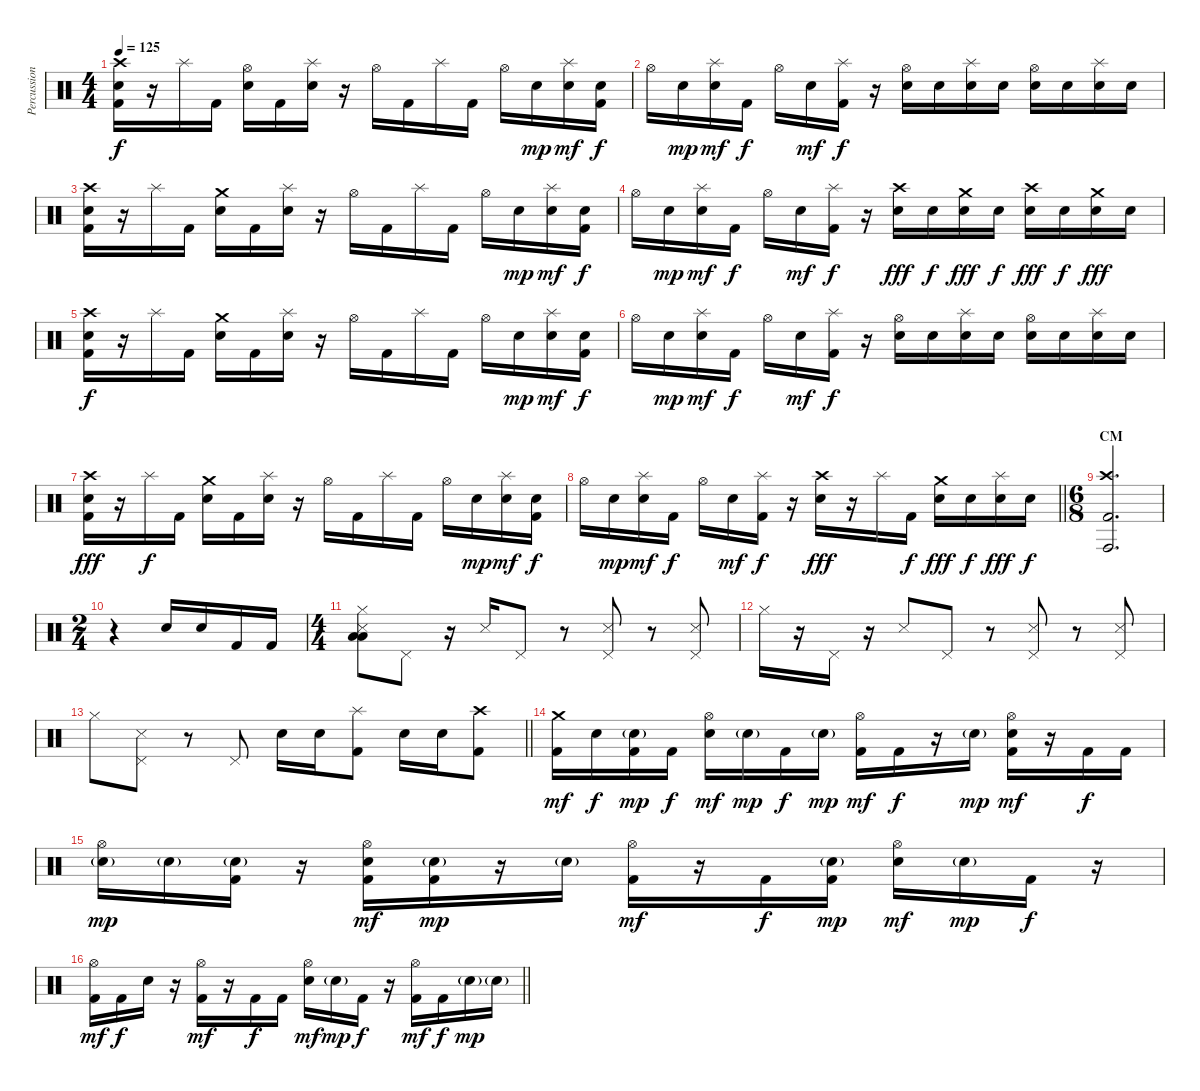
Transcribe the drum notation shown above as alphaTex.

\track ("Percussion" "Percussion") {instrument percussion}
\staff {score}
\articulation defaults
\ts (4 4)
\tempo 125
\clef neutral
\ks c
("Crash high (hit)" "Electric Snare (hit)" "Kick (hit) 2").16{dy f} r.16 "Splash (hit)".16 "Kick (hit) 2".16 ("Hi-Hat (open)" "Electric Snare (hit)").16 "Kick (hit) 2".16 ("Splash (hit)" "Electric Snare (hit)").16 r.16 "Hi-Hat (open)".16 "Kick (hit) 2".16 "Splash (hit)".16 "Kick (hit) 2".16 "Hi-Hat (open)".16 "Electric Snare (hit)".16{dy mp} ("Splash (hit)" "Electric Snare (hit)").16{dy mf} ("Electric Snare (hit)" "Kick (hit) 2").16{dy f} |
"Hi-Hat (open)".16 "Electric Snare (hit)".16{dy mp} ("Splash (hit)" "Electric Snare (hit)").16{dy mf} "Kick (hit) 2".16{dy f} "Hi-Hat (open)".16 "Electric Snare (hit)".16{dy mf} ("Splash (hit)" "Kick (hit) 2").16{dy f} r.16 ("Hi-Hat (open)" "Electric Snare (hit)").16 "Electric Snare (hit)".16 ("Splash (hit)" "Electric Snare (hit)").16 "Electric Snare (hit)".16 ("Hi-Hat (open)" "Electric Snare (hit)").16 "Electric Snare (hit)".16 ("Splash (hit)" "Electric Snare (hit)").16 "Electric Snare (hit)".16 |
("Crash high (hit)" "Electric Snare (hit)" "Kick (hit) 2").16 r.16 "Splash (hit)".16 "Kick (hit) 2".16 ("Crash medium (hit)" "Electric Snare (hit)").16 "Kick (hit) 2".16 ("Splash (hit)" "Electric Snare (hit)").16 r.16 "Hi-Hat (open)".16 "Kick (hit) 2".16 "Splash (hit)".16 "Kick (hit) 2".16 "Hi-Hat (open)".16 "Electric Snare (hit)".16{dy mp} ("Splash (hit)" "Electric Snare (hit)").16{dy mf} ("Electric Snare (hit)" "Kick (hit) 2").16{dy f} |
"Hi-Hat (open)".16 "Electric Snare (hit)".16{dy mp} ("Splash (hit)" "Electric Snare (hit)").16{dy mf} "Kick (hit) 2".16{dy f} "Hi-Hat (open)".16 "Electric Snare (hit)".16{dy mf} ("Splash (hit)" "Kick (hit) 2").16{dy f} r.16 ("Crash high (hit)" "Electric Snare (hit)").16{dy fff} "Electric Snare (hit)".16{dy f} ("Crash medium (hit)" "Electric Snare (hit)").16{dy fff} "Electric Snare (hit)".16{dy f} ("Crash high (hit)" "Electric Snare (hit)").16{dy fff} "Electric Snare (hit)".16{dy f} ("Crash medium (hit)" "Electric Snare (hit)").16{dy fff} "Electric Snare (hit)".16 |
("Crash high (hit)" "Electric Snare (hit)" "Kick (hit) 2").16{dy f} r.16 "Splash (hit)".16 "Kick (hit) 2".16 ("Crash medium (hit)" "Electric Snare (hit)").16 "Kick (hit) 2".16 ("Splash (hit)" "Electric Snare (hit)").16 r.16 "Hi-Hat (open)".16 "Kick (hit) 2".16 "Splash (hit)".16 "Kick (hit) 2".16 "Hi-Hat (open)".16 "Electric Snare (hit)".16{dy mp} ("Splash (hit)" "Electric Snare (hit)").16{dy mf} ("Electric Snare (hit)" "Kick (hit) 2").16{dy f} |
"Hi-Hat (open)".16 "Electric Snare (hit)".16{dy mp} ("Splash (hit)" "Electric Snare (hit)").16{dy mf} "Kick (hit) 2".16{dy f} "Hi-Hat (open)".16 "Electric Snare (hit)".16{dy mf} ("Splash (hit)" "Kick (hit) 2").16{dy f} r.16 ("Hi-Hat (open)" "Electric Snare (hit)").16 "Electric Snare (hit)".16 ("Splash (hit)" "Electric Snare (hit)").16 "Electric Snare (hit)".16 ("Hi-Hat (open)" "Electric Snare (hit)").16 "Electric Snare (hit)".16 ("Splash (hit)" "Electric Snare (hit)").16 "Electric Snare (hit)".16 |
("Crash high (hit)" "Electric Snare (hit)" "Kick (hit) 2").16{dy fff} r.16 "Splash (hit)".16{dy f} "Kick (hit) 2".16 ("Crash medium (hit)" "Electric Snare (hit)").16 "Kick (hit) 2".16 ("Splash (hit)" "Electric Snare (hit)").16 r.16 "Hi-Hat (open)".16 "Kick (hit) 2".16 "Splash (hit)".16 "Kick (hit) 2".16 "Hi-Hat (open)".16 "Electric Snare (hit)".16{dy mp} ("Splash (hit)" "Electric Snare (hit)").16{dy mf} ("Electric Snare (hit)" "Kick (hit) 2").16{dy f} |
\barLineRight lightlight "Hi-Hat (open)".16 "Electric Snare (hit)".16{dy mp}
("Splash (hit)" "Electric Snare (hit)").16{dy mf} "Kick (hit) 2".16{dy f} "Hi-Hat (open)".16 "Electric Snare (hit)".16{dy mf} ("Splash (hit)" "Kick (hit) 2").16{dy f} r.16 ("Crash high (hit)" "Electric Snare (hit)").16{dy fff} r.16 "Splash (hit)".16 "Kick (hit) 2".16{dy f} ("Crash medium (hit)" "Electric Snare (hit)").16{dy fff} "Electric Snare (hit)".16{dy f} ("Splash (hit)" "Electric Snare (hit)").16{dy fff} "Electric Snare (hit)".16{dy f} |
\ts (6 8)
\section ("" "CM")
("Crash high (hit)" "Conga high (hit)" "Kick (hit) 2").2{d} |
\ts (2 4)
r.4 "Electric Snare (hit)".16 "Electric Snare (hit)".16 "Kick (hit) 2".16 "Kick (hit) 2".16 |
\ts (4 4)
("Hi-Hat (closed)" "Low Tom (hit)" "Low Floor Tom (hit)" "Snare (side stick) 3").8 "Pedal Hi-Hat (hit)".8 r.16 "Snare (side stick) 3".16 "Pedal Hi-Hat (hit)".8 r.8 ("Pedal Hi-Hat (hit)" "Snare (side stick) 3").8 r.8 ("Pedal Hi-Hat (hit)" "Snare (side stick) 3").8 |
"Hi-Hat (closed)".16 r.16 "Pedal Hi-Hat (hit)".16 r.16 "Snare (side stick) 3".8 "Pedal Hi-Hat (hit)".8 r.8 ("Pedal Hi-Hat (hit)" "Snare (side stick) 3").8 r.8 ("Pedal Hi-Hat (hit)" "Snare (side stick) 3").8 |
\barLineRight lightlight "Hi-Hat (closed)".8
("Pedal Hi-Hat (hit)" "Snare (side stick) 3").8 r.8 "Pedal Hi-Hat (hit)".8 "Electric Snare (hit)".16 "Electric Snare (hit)".16 ("Splash (hit)" "Kick (hit) 2").8 "Electric Snare (hit)".16 "Electric Snare (hit)".16 ("Crash high (hit)" "Kick (hit) 2").8 |
("Crash medium (hit)" "Kick (hit) 2").16{dy mf} "Electric Snare (hit)".16{dy f} ("Electric Snare (hit)"{g} "Kick (hit) 2").16{dy mp} "Kick (hit) 2".16{dy f} ("Hi-Hat (open)" "Electric Snare (hit)").16{dy mf} "Electric Snare (hit)"{g}.16{dy mp} "Kick (hit) 2".16{dy f} "Electric Snare (hit)"{g}.16{dy mp} ("Hi-Hat (open)" "Kick (hit) 2").16{dy mf} "Kick (hit) 2".16{dy f} r.16 "Electric Snare (hit)"{g}.16{dy mp} ("Hi-Hat (open)" "Electric Snare (hit)" "Kick (hit) 2").16{dy mf} r.16 "Kick (hit) 2".16{dy f} "Kick (hit) 2".16 |
("Hi-Hat (open)" "Electric Snare (hit)"{g}).16{dy mp} "Electric Snare (hit)"{g}.16 ("Electric Snare (hit)"{g} "Kick (hit) 2").16 r.16 ("Hi-Hat (open)" "Electric Snare (hit)" "Kick (hit) 2").16{dy mf} ("Electric Snare (hit)"{g} "Kick (hit) 2").16{dy mp} r.16 "Electric Snare (hit)"{g}.16 ("Hi-Hat (open)" "Kick (hit) 2").16{dy mf} r.16 "Kick (hit) 2".16{dy f} ("Electric Snare (hit)"{g} "Kick (hit) 2").16{dy mp} ("Hi-Hat (open)" "Electric Snare (hit)").16{dy mf} "Electric Snare (hit)"{g}.16{dy mp} "Kick (hit) 2".16{dy f} r.16 |
\barLineRight lightlight
("Hi-Hat (open)" "Kick (hit) 2").16{dy mf} "Kick (hit) 2".16{dy f} "Electric Snare (hit)".16 r.16 ("Hi-Hat (open)" "Kick (hit) 2").16{dy mf} r.16 "Kick (hit) 2".16{dy f} "Kick (hit) 2".16 ("Hi-Hat (open)" "Electric Snare (hit)").16{dy mf} "Electric Snare (hit)"{g}.16{dy mp} "Kick (hit) 2".16{dy f} r.16 ("Hi-Hat (open)" "Kick (hit) 2").16{dy mf} "Kick (hit) 2".16{dy f} "Electric Snare (hit)"{g}.16{dy mp} "Electric Snare (hit)"{g}.16
